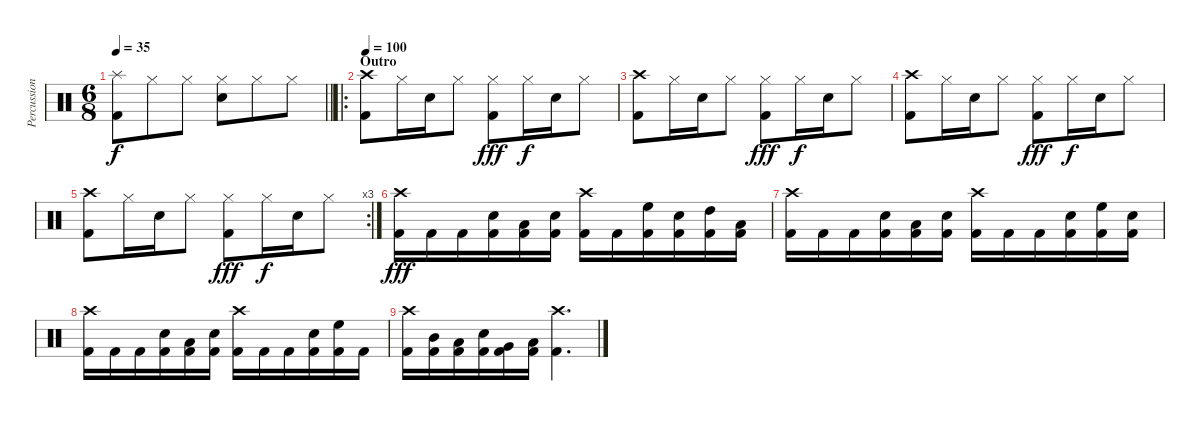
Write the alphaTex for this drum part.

\track ("Percussion" "Percussion") {instrument percussion}
\staff {score}
\articulation defaults
\ts (6 8)
\tempo 35
\clef neutral
\barLineRight lightlight
\ks c
("Splash (hit)" "Kick (hit) 2").8{dy f} "Hi-Hat (closed)".8 "Hi-Hat (closed)".8 ("Hi-Hat (closed)" "Electric Snare (hit)").8 "Hi-Hat (closed)".8 "Hi-Hat (closed)".8 |
\ro
\section ("" "Outro")
\tempo 100
("Crash high (hit)" "Kick (hit) 2").8 "Hi-Hat (closed)".16 "Snare (hit) 2".16 "Hi-Hat (closed)".8 ("Hi-Hat (closed)" "Kick (hit) 2").8{dy fff} "Hi-Hat (closed)".16{dy f} "Snare (hit) 2".16 "Hi-Hat (closed)".8 |
("Crash high (hit)" "Kick (hit) 2").8 "Hi-Hat (closed)".16 "Snare (hit) 2".16 "Hi-Hat (closed)".8 ("Hi-Hat (closed)" "Kick (hit) 2").8{dy fff} "Hi-Hat (closed)".16{dy f} "Snare (hit) 2".16 "Hi-Hat (closed)".8 |
("Crash high (hit)" "Kick (hit) 2").8 "Hi-Hat (closed)".16 "Snare (hit) 2".16 "Hi-Hat (closed)".8 ("Hi-Hat (closed)" "Kick (hit) 2").8{dy fff} "Hi-Hat (closed)".16{dy f} "Snare (hit) 2".16 "Hi-Hat (closed)".8 |
\rc 3
("Crash high (hit)" "Kick (hit) 2").8 "Hi-Hat (closed)".16 "Snare (hit) 2".16 "Hi-Hat (closed)".8 ("Hi-Hat (closed)" "Kick (hit) 2").8{dy fff} "Hi-Hat (closed)".16{dy f} "Snare (hit) 2".16 "Hi-Hat (closed)".8 |
("Crash high (hit)" "Kick (hit) 2").16{dy fff} "Kick (hit) 2".16 "Kick (hit) 2".16 ("Snare (hit) 2" "Kick (hit) 2").16 ("Low Floor Tom (hit)" "Kick (hit) 2").16 ("Snare (hit) 2" "Kick (hit) 2").16 ("Crash high (hit)" "Kick (hit) 2").16 "Kick (hit) 2".16 ("High Floor Tom (hit)" "Kick (hit) 2").16 ("Snare (hit) 2" "Kick (hit) 2").16 ("High Tom (hit)" "Kick (hit) 2").16 ("Low Tom (hit)" "Kick (hit) 2").16 |
("Crash high (hit)" "Kick (hit) 2").16 "Kick (hit) 2".16 "Kick (hit) 2".16 ("Snare (hit) 2" "Kick (hit) 2").16 ("Low Floor Tom (hit)" "Kick (hit) 2").16 ("Snare (hit) 2" "Kick (hit) 2").16 ("Crash high (hit)" "Kick (hit) 2").16 "Kick (hit) 2".16 "Kick (hit) 2".16 ("Snare (hit) 2" "Kick (hit) 2").16 ("High Floor Tom (hit)" "Kick (hit) 2").16 ("Snare (hit) 2" "Kick (hit) 2").16 |
("Crash high (hit)" "Kick (hit) 2").16 "Kick (hit) 2".16 "Kick (hit) 2".16 ("Snare (hit) 2" "Kick (hit) 2").16 ("Low Floor Tom (hit)" "Kick (hit) 2").16 ("Snare (hit) 2" "Kick (hit) 2").16 ("Crash high (hit)" "Kick (hit) 2").16 "Kick (hit) 2".16 "Kick (hit) 2".16 ("Snare (hit) 2" "Kick (hit) 2").16 ("High Floor Tom (hit)" "Kick (hit) 2").16 "Kick (hit) 2".16 |
("Crash high (hit)" "Kick (hit) 2").16 ("Mid Tom (hit)" "Kick (hit) 2").16 ("Low Floor Tom (hit)" "Kick (hit) 2").16 ("Snare (hit) 2" "Kick (hit) 2").16 ("Very Low Tom (hit)" "Kick (hit) 2").16 ("Low Tom (hit)" "Kick (hit) 2").16 ("Crash high (hit)" "Kick (hit) 2").4{d}
